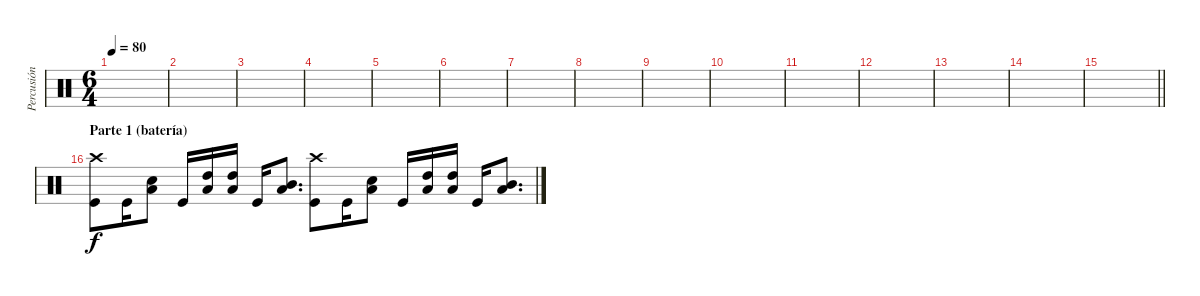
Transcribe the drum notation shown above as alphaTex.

\track ("Percusión" "Percusión") {instrument percussion}
\staff {score}
\articulation defaults
\ts (6 4)
\tempo 80
\clef neutral
\ks c
|
|
|
|
|
|
|
|
|
|
|
|
|
|
\barLineRight lightlight
|
\section ("" "Parte 1 (batería)")
("Kick (hit)" "Crash high (hit)").8 "Kick (hit)".16 ("Snare (hit) 2" "Low Tom (hit)").8 "Kick (hit)".16 ("Low Tom (hit)" "High Tom (hit)").16 ("Low Tom (hit)" "High Tom (hit)").16 "Kick (hit)".16 ("Low Tom (hit)" "Mid Tom (hit)").8{d} ("Kick (hit)" "Crash high (hit)").8 "Kick (hit)".16 ("Snare (hit) 2" "Low Tom (hit)").8 "Kick (hit)".16 ("Low Tom (hit)" "High Tom (hit)").16 ("Low Tom (hit)" "High Tom (hit)").16 "Kick (hit)".16 ("Low Tom (hit)" "Mid Tom (hit)").8{d}
